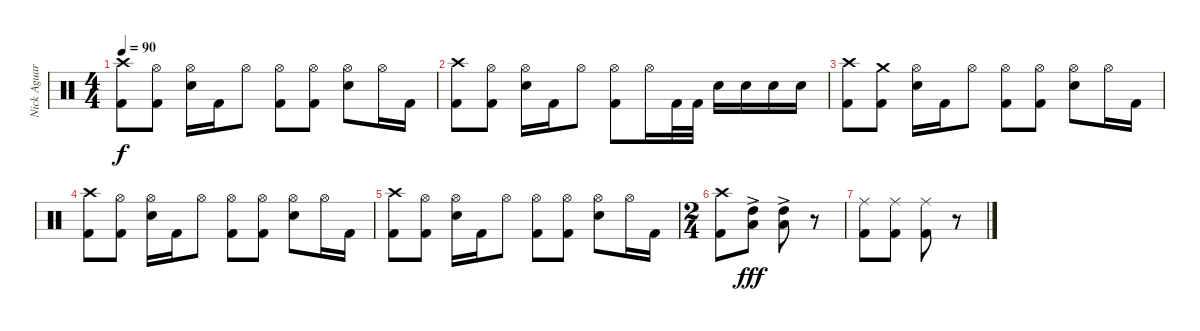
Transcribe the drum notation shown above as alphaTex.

\track ("Nick Aguara" "Nick Aguar") {instrument percussion}
\staff {score}
\articulation defaults
\ts (4 4)
\tempo 90
\clef neutral
\ks c
("Crash high (hit)" "Kick (hit) 2").8{dy f} ("Hi-Hat (open)" "Kick (hit) 2").8 ("Hi-Hat (open)" "Electric Snare (hit)").16 "Kick (hit) 2".16 "Hi-Hat (open)".8 ("Hi-Hat (open)" "Kick (hit) 2").8 ("Hi-Hat (open)" "Kick (hit) 2").8 ("Hi-Hat (open)" "Electric Snare (hit)").8 "Hi-Hat (open)".16 "Kick (hit) 2".16 |
("Crash high (hit)" "Kick (hit) 2").8 ("Hi-Hat (open)" "Kick (hit) 2").8 ("Hi-Hat (open)" "Electric Snare (hit)").16 "Kick (hit) 2".16 "Hi-Hat (open)".8 ("Hi-Hat (open)" "Kick (hit) 2").8 "Hi-Hat (open)".16 "Kick (hit) 2".32 "Kick (hit) 2".32 "Electric Snare (hit)".16 "Electric Snare (hit)".16 "Electric Snare (hit)".16 "Electric Snare (hit)".16 |
("Crash high (hit)" "Kick (hit) 2").8 ("Crash medium (hit)" "Kick (hit) 2").8 ("Hi-Hat (open)" "Electric Snare (hit)").16 "Kick (hit) 2".16 "Hi-Hat (open)".8 ("Hi-Hat (open)" "Kick (hit) 2").8 ("Hi-Hat (open)" "Kick (hit) 2").8 ("Hi-Hat (open)" "Electric Snare (hit)").8 "Hi-Hat (open)".16 "Kick (hit) 2".16 |
("Crash high (hit)" "Kick (hit) 2").8 ("Hi-Hat (open)" "Kick (hit) 2").8 ("Hi-Hat (open)" "Electric Snare (hit)").16 "Kick (hit) 2".16 "Hi-Hat (open)".8 ("Hi-Hat (open)" "Kick (hit) 2").8 ("Hi-Hat (open)" "Kick (hit) 2").8 ("Hi-Hat (open)" "Electric Snare (hit)").8 "Hi-Hat (open)".16 "Kick (hit) 2".16 |
("Crash high (hit)" "Kick (hit) 2").8 ("Hi-Hat (open)" "Kick (hit) 2").8 ("Hi-Hat (open)" "Electric Snare (hit)").16 "Kick (hit) 2".16 "Hi-Hat (open)".8 ("Hi-Hat (open)" "Kick (hit) 2").8 ("Hi-Hat (open)" "Kick (hit) 2").8 ("Hi-Hat (open)" "Electric Snare (hit)").8 "Hi-Hat (open)".16 "Kick (hit) 2".16 |
\ts (2 4)
("Crash high (hit)" "Kick (hit) 2").8 ("High Tom (hit)"{ac} "Low Tom (hit)"{ac}).8{dy fff} ("High Tom (hit)"{ac} "Low Tom (hit)"{ac}).8 r.8 |
("Ride (middle)" "Kick (hit) 2").8 ("Ride (middle)" "Kick (hit) 2").8 ("Ride (middle)" "Kick (hit) 2").8 r.8
